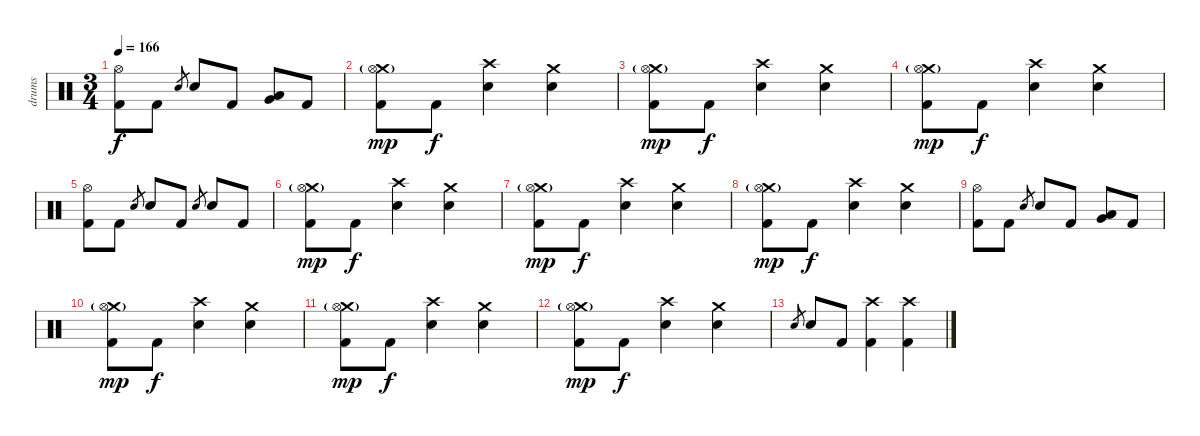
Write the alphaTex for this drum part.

\track ("drums" "drums") {instrument percussion}
\staff {score}
\articulation defaults
\ts (3 4)
\tempo 166
\clef neutral
\ks c
("Hi-Hat (open)" "Kick (hit) 2").8{dy f} "Kick (hit) 2".8 "Snare (hit) 2".8{gr} "Snare (hit) 2".8 "Kick (hit) 2".8 ("Very Low Tom (hit)" "Low Floor Tom (hit)").8 "Kick (hit) 2".8 |
("Crash medium (hit)"{g} "Hi-Hat (open)" "Kick (hit) 2").8{dy mp} "Kick (hit) 2".8{dy f} ("Crash high (hit)" "Snare (hit) 2").4 ("Crash medium (hit)" "Snare (hit) 2").4 |
("Crash medium (hit)"{g} "Hi-Hat (open)" "Kick (hit) 2").8{dy mp} "Kick (hit) 2".8{dy f} ("Crash high (hit)" "Snare (hit) 2").4 ("Crash medium (hit)" "Snare (hit) 2").4 |
("Crash medium (hit)"{g} "Hi-Hat (open)" "Kick (hit) 2").8{dy mp} "Kick (hit) 2".8{dy f} ("Crash high (hit)" "Snare (hit) 2").4 ("Crash medium (hit)" "Snare (hit) 2").4 |
("Hi-Hat (open)" "Kick (hit) 2").8 "Kick (hit) 2".8 "Snare (hit) 2".8{gr} "Snare (hit) 2".8 "Kick (hit) 2".8 "Snare (hit) 2".8{gr} "Snare (hit) 2".8 "Kick (hit) 2".8 |
("Crash medium (hit)"{g} "Hi-Hat (open)" "Kick (hit) 2").8{dy mp} "Kick (hit) 2".8{dy f} ("Crash high (hit)" "Snare (hit) 2").4 ("Crash medium (hit)" "Snare (hit) 2").4 |
("Crash medium (hit)"{g} "Hi-Hat (open)" "Kick (hit) 2").8{dy mp} "Kick (hit) 2".8{dy f} ("Crash high (hit)" "Snare (hit) 2").4 ("Crash medium (hit)" "Snare (hit) 2").4 |
("Crash medium (hit)"{g} "Hi-Hat (open)" "Kick (hit) 2").8{dy mp} "Kick (hit) 2".8{dy f} ("Crash high (hit)" "Snare (hit) 2").4 ("Crash medium (hit)" "Snare (hit) 2").4 |
("Hi-Hat (open)" "Kick (hit) 2").8 "Kick (hit) 2".8 "Snare (hit) 2".8{gr} "Snare (hit) 2".8 "Kick (hit) 2".8 ("Very Low Tom (hit)" "Low Floor Tom (hit)").8 "Kick (hit) 2".8 |
("Crash medium (hit)"{g} "Hi-Hat (open)" "Kick (hit) 2").8{dy mp} "Kick (hit) 2".8{dy f} ("Crash high (hit)" "Snare (hit) 2").4 ("Crash medium (hit)" "Snare (hit) 2").4 |
("Crash medium (hit)"{g} "Hi-Hat (open)" "Kick (hit) 2").8{dy mp} "Kick (hit) 2".8{dy f} ("Crash high (hit)" "Snare (hit) 2").4 ("Crash medium (hit)" "Snare (hit) 2").4 |
("Crash medium (hit)"{g} "Hi-Hat (open)" "Kick (hit) 2").8{dy mp} "Kick (hit) 2".8{dy f} ("Crash high (hit)" "Snare (hit) 2").4 ("Crash medium (hit)" "Snare (hit) 2").4 |
"Snare (hit) 2".8{gr} "Snare (hit) 2".8 "Kick (hit) 2".8 ("Crash high (hit)" "Kick (hit) 2").4 ("Crash high (hit)" "Kick (hit) 2").4
